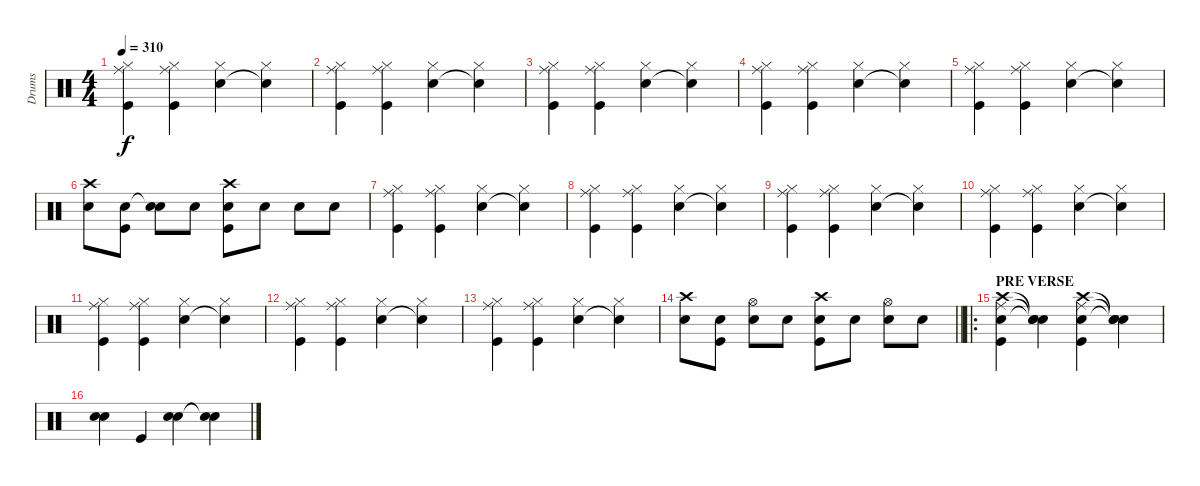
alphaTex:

\track ("Drums" "Drums") {instrument percussion}
\staff {score}
\articulation defaults
\ts (4 4)
\tempo 310
\clef neutral
\ks c
("Ride (middle)" "Hi-Hat (closed)" "Kick (hit)").4{dy f} ("Ride (middle)" "Hi-Hat (closed)" "Kick (hit)").4 ("Snare (hit) 2" "Hi-Hat (closed)").4 ("Snare (hit)"{t} "Hi-Hat (closed)").4 |
("Ride (middle)" "Hi-Hat (closed)" "Kick (hit)").4 ("Ride (middle)" "Hi-Hat (closed)" "Kick (hit)").4 ("Snare (hit) 2" "Hi-Hat (closed)").4 ("Snare (hit)"{t} "Hi-Hat (closed)").4 |
("Ride (middle)" "Hi-Hat (closed)" "Kick (hit)").4 ("Ride (middle)" "Hi-Hat (closed)" "Kick (hit)").4 ("Snare (hit) 2" "Hi-Hat (closed)").4 ("Snare (hit)"{t} "Hi-Hat (closed)").4 |
("Ride (middle)" "Hi-Hat (closed)" "Kick (hit)").4 ("Ride (middle)" "Hi-Hat (closed)" "Kick (hit)").4 ("Snare (hit) 2" "Hi-Hat (closed)").4 ("Snare (hit)"{t} "Hi-Hat (closed)").4 |
("Ride (middle)" "Hi-Hat (closed)" "Kick (hit)").4 ("Ride (middle)" "Hi-Hat (closed)" "Kick (hit)").4 ("Snare (hit) 2" "Hi-Hat (closed)").4 ("Snare (hit)"{t} "Hi-Hat (closed)").4 |
("Crash high (hit)" "Snare (hit) 2").8 ("Snare (hit) 2" "Kick (hit)").8 ("Snare (hit)"{t} "Snare (hit) 2").8 "Snare (hit) 2".8 ("Crash high (hit)" "Snare (hit) 2" "Kick (hit)").8 "Snare (hit) 2".8 "Snare (hit) 2".8 "Snare (hit) 2".8 |
("Ride (middle)" "Hi-Hat (closed)" "Kick (hit)").4 ("Ride (middle)" "Hi-Hat (closed)" "Kick (hit)").4 ("Snare (hit) 2" "Hi-Hat (closed)").4 ("Snare (hit)"{t} "Hi-Hat (closed)").4 |
("Ride (middle)" "Hi-Hat (closed)" "Kick (hit)").4 ("Ride (middle)" "Hi-Hat (closed)" "Kick (hit)").4 ("Snare (hit) 2" "Hi-Hat (closed)").4 ("Snare (hit)"{t} "Hi-Hat (closed)").4 |
("Ride (middle)" "Hi-Hat (closed)" "Kick (hit)").4 ("Ride (middle)" "Hi-Hat (closed)" "Kick (hit)").4 ("Snare (hit) 2" "Hi-Hat (closed)").4 ("Snare (hit)"{t} "Hi-Hat (closed)").4 |
("Ride (middle)" "Hi-Hat (closed)" "Kick (hit)").4 ("Ride (middle)" "Hi-Hat (closed)" "Kick (hit)").4 ("Snare (hit) 2" "Hi-Hat (closed)").4 ("Snare (hit)"{t} "Hi-Hat (closed)").4 |
("Ride (middle)" "Hi-Hat (closed)" "Kick (hit)").4 ("Ride (middle)" "Hi-Hat (closed)" "Kick (hit)").4 ("Snare (hit) 2" "Hi-Hat (closed)").4 ("Snare (hit)"{t} "Hi-Hat (closed)").4 |
("Ride (middle)" "Hi-Hat (closed)" "Kick (hit)").4 ("Ride (middle)" "Hi-Hat (closed)" "Kick (hit)").4 ("Snare (hit) 2" "Hi-Hat (closed)").4 ("Snare (hit)"{t} "Hi-Hat (closed)").4 |
("Ride (middle)" "Hi-Hat (closed)" "Kick (hit)").4 ("Ride (middle)" "Hi-Hat (closed)" "Kick (hit)").4 ("Snare (hit) 2" "Hi-Hat (closed)").4 ("Snare (hit)"{t} "Hi-Hat (closed)").4 |
\barLineRight lightlight
("Crash high (hit)" "Snare (hit) 2").8 ("Snare (hit) 2" "Kick (hit)").8 ("Hi-Hat (open)" "Snare (hit) 2").8 "Snare (hit) 2".8 ("Crash high (hit)" "Snare (hit) 2" "Kick (hit)").8 "Snare (hit) 2".8 ("Hi-Hat (open)" "Snare (hit) 2").8 "Snare (hit) 2".8 |
\ro
\section ("" "PRE VERSE")
("Ride (middle)" "Crash high (hit)" "Snare (hit) 2" "Kick (hit)").4 ("Snare (hit)"{t} "Snare (hit)"{t} "Snare (hit)"{t}).4 ("Ride (middle)" "Crash high (hit)" "Snare (hit) 2" "Kick (hit)").4 ("Snare (hit)"{t} "Snare (hit)"{t} "Snare (hit)"{t}).4 |
("Snare (hit) 2" "Snare (hit) 2").4 "Kick (hit)".4 ("Snare (hit) 2" "Snare (hit) 2").4 ("Snare (hit)"{t} "Snare (hit)"{t}).4
